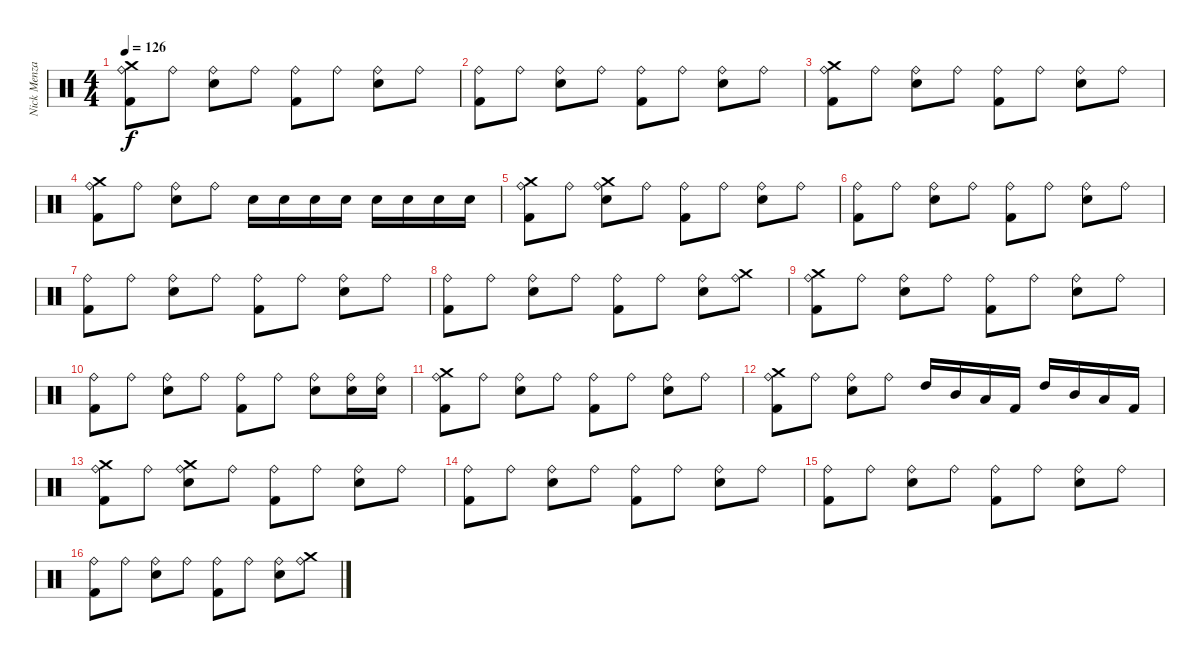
\track ("Nick Menza" "Nick Menza") {instrument percussion}
\staff {score}
\articulation defaults
\ts (4 4)
\tempo 126
\clef neutral
\ks c
("Crash medium (hit)" "Ride (bell)" "Kick (hit) 2").8{dy f} "Ride (bell)".8 ("Electric Snare (hit)" "Ride (bell)").8 "Ride (bell)".8 ("Ride (bell)" "Kick (hit) 2").8 "Ride (bell)".8 ("Electric Snare (hit)" "Ride (bell)").8 "Ride (bell)".8 |
("Ride (bell)" "Kick (hit) 2").8 "Ride (bell)".8 ("Electric Snare (hit)" "Ride (bell)").8 "Ride (bell)".8 ("Ride (bell)" "Kick (hit) 2").8 "Ride (bell)".8 ("Electric Snare (hit)" "Ride (bell)").8 "Ride (bell)".8 |
("Crash medium (hit)" "Ride (bell)" "Kick (hit) 2").8 "Ride (bell)".8 ("Electric Snare (hit)" "Ride (bell)").8 "Ride (bell)".8 ("Ride (bell)" "Kick (hit) 2").8 "Ride (bell)".8 ("Electric Snare (hit)" "Ride (bell)").8 "Ride (bell)".8 |
("Crash medium (hit)" "Ride (bell)" "Kick (hit) 2").8 "Ride (bell)".8 ("Electric Snare (hit)" "Ride (bell)").8 "Ride (bell)".8 "Electric Snare (hit)".16 "Electric Snare (hit)".16 "Electric Snare (hit)".16 "Electric Snare (hit)".16 "Electric Snare (hit)".16 "Electric Snare (hit)".16 "Electric Snare (hit)".16 "Electric Snare (hit)".16 |
("Crash medium (hit)" "Ride (bell)" "Kick (hit) 2").8 "Ride (bell)".8 ("Crash medium (hit)" "Ride (bell)" "Electric Snare (hit)").8 "Ride (bell)".8 ("Ride (bell)" "Kick (hit) 2").8 "Ride (bell)".8 ("Electric Snare (hit)" "Ride (bell)").8 "Ride (bell)".8 |
("Ride (bell)" "Kick (hit) 2").8 "Ride (bell)".8 ("Electric Snare (hit)" "Ride (bell)").8 "Ride (bell)".8 ("Ride (bell)" "Kick (hit) 2").8 "Ride (bell)".8 ("Electric Snare (hit)" "Ride (bell)").8 "Ride (bell)".8 |
("Ride (bell)" "Kick (hit) 2").8 "Ride (bell)".8 ("Electric Snare (hit)" "Ride (bell)").8 "Ride (bell)".8 ("Ride (bell)" "Kick (hit) 2").8 "Ride (bell)".8 ("Electric Snare (hit)" "Ride (bell)").8 "Ride (bell)".8 |
("Ride (bell)" "Kick (hit) 2").8 "Ride (bell)".8 ("Electric Snare (hit)" "Ride (bell)").8 "Ride (bell)".8 ("Ride (bell)" "Kick (hit) 2").8 "Ride (bell)".8 ("Electric Snare (hit)" "Ride (bell)").8 ("Crash medium (hit)" "Ride (bell)").8 |
("Crash medium (hit)" "Ride (bell)" "Kick (hit) 2").8 "Ride (bell)".8 ("Electric Snare (hit)" "Ride (bell)").8 "Ride (bell)".8 ("Ride (bell)" "Kick (hit) 2").8 "Ride (bell)".8 ("Electric Snare (hit)" "Ride (bell)").8 "Ride (bell)".8 |
("Ride (bell)" "Kick (hit) 2").8 "Ride (bell)".8 ("Electric Snare (hit)" "Ride (bell)").8 "Ride (bell)".8 ("Ride (bell)" "Kick (hit) 2").8 "Ride (bell)".8 ("Electric Snare (hit)" "Ride (bell)").8 ("Electric Snare (hit)" "Ride (bell)").16 ("Electric Snare (hit)" "Ride (bell)").16 |
("Crash medium (hit)" "Ride (bell)" "Kick (hit) 2").8 "Ride (bell)".8 ("Electric Snare (hit)" "Ride (bell)").8 "Ride (bell)".8 ("Ride (bell)" "Kick (hit) 2").8 "Ride (bell)".8 ("Electric Snare (hit)" "Ride (bell)").8 "Ride (bell)".8 |
("Crash medium (hit)" "Ride (bell)" "Kick (hit) 2").8 "Ride (bell)".8 ("Electric Snare (hit)" "Ride (bell)").8 "Ride (bell)".8 "High Tom (hit)".16 "Mid Tom (hit)".16 "Low Tom (hit)".16 "Kick (hit) 2".16 "High Tom (hit)".16 "Mid Tom (hit)".16 "Low Tom (hit)".16 "Kick (hit) 2".16 |
("Crash medium (hit)" "Ride (bell)" "Kick (hit) 2").8 "Ride (bell)".8 ("Crash medium (hit)" "Ride (bell)" "Electric Snare (hit)").8 "Ride (bell)".8 ("Ride (bell)" "Kick (hit) 2").8 "Ride (bell)".8 ("Electric Snare (hit)" "Ride (bell)").8 "Ride (bell)".8 |
("Ride (bell)" "Kick (hit) 2").8 "Ride (bell)".8 ("Electric Snare (hit)" "Ride (bell)").8 "Ride (bell)".8 ("Ride (bell)" "Kick (hit) 2").8 "Ride (bell)".8 ("Electric Snare (hit)" "Ride (bell)").8 "Ride (bell)".8 |
("Ride (bell)" "Kick (hit) 2").8 "Ride (bell)".8 ("Electric Snare (hit)" "Ride (bell)").8 "Ride (bell)".8 ("Ride (bell)" "Kick (hit) 2").8 "Ride (bell)".8 ("Electric Snare (hit)" "Ride (bell)").8 "Ride (bell)".8 |
("Ride (bell)" "Kick (hit) 2").8 "Ride (bell)".8 ("Electric Snare (hit)" "Ride (bell)").8 "Ride (bell)".8 ("Ride (bell)" "Kick (hit) 2").8 "Ride (bell)".8 ("Electric Snare (hit)" "Ride (bell)").8 ("Crash medium (hit)" "Ride (bell)").8
